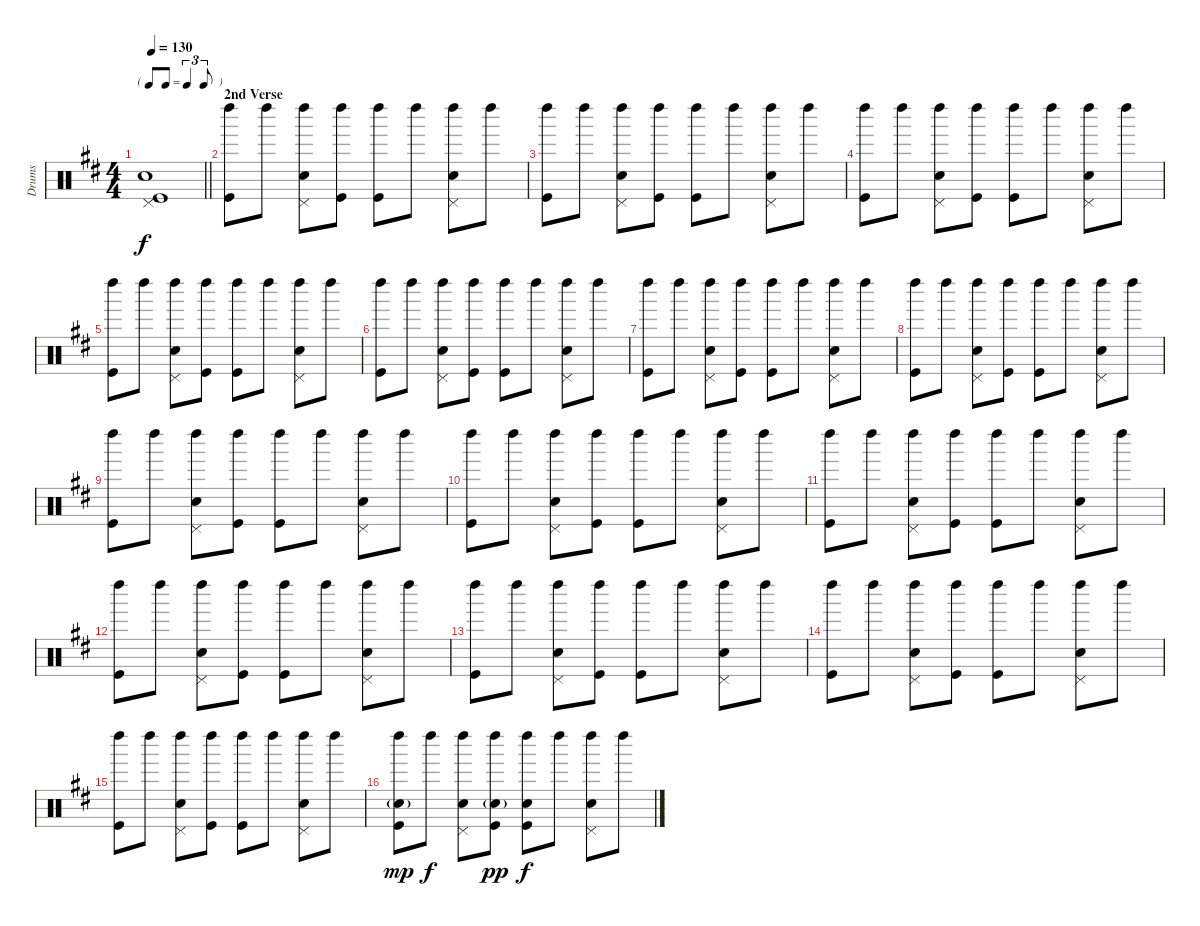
\track ("Drums" "Drums") {instrument percussion}
\staff {score}
\articulation defaults
\ts (4 4)
\tf triplet8th
\tempo 130
\clef neutral
\barLineRight lightlight
\ks d
("Pedal Hi-Hat (hit)" "Snare (hit) 2" "Kick (hit)").1{dy f} |
\section ("" "2nd Verse")
("Left Maraca (hit)" "Kick (hit)").8 "Left Maraca (hit)".8 ("Left Maraca (hit)" "Pedal Hi-Hat (hit)" "Snare (hit) 2").8 ("Left Maraca (hit)" "Kick (hit)").8 ("Left Maraca (hit)" "Kick (hit)").8 "Left Maraca (hit)".8 ("Left Maraca (hit)" "Pedal Hi-Hat (hit)" "Snare (hit) 2").8 "Left Maraca (hit)".8 |
("Left Maraca (hit)" "Kick (hit)").8 "Left Maraca (hit)".8 ("Left Maraca (hit)" "Pedal Hi-Hat (hit)" "Snare (hit) 2").8 ("Left Maraca (hit)" "Kick (hit)").8 ("Left Maraca (hit)" "Kick (hit)").8 "Left Maraca (hit)".8 ("Left Maraca (hit)" "Pedal Hi-Hat (hit)" "Snare (hit) 2").8 "Left Maraca (hit)".8 |
("Left Maraca (hit)" "Kick (hit)").8 "Left Maraca (hit)".8 ("Left Maraca (hit)" "Pedal Hi-Hat (hit)" "Snare (hit) 2").8 ("Left Maraca (hit)" "Kick (hit)").8 ("Left Maraca (hit)" "Kick (hit)").8 "Left Maraca (hit)".8 ("Left Maraca (hit)" "Pedal Hi-Hat (hit)" "Snare (hit) 2").8 "Left Maraca (hit)".8 |
("Left Maraca (hit)" "Kick (hit)").8 "Left Maraca (hit)".8 ("Left Maraca (hit)" "Pedal Hi-Hat (hit)" "Snare (hit) 2").8 ("Left Maraca (hit)" "Kick (hit)").8 ("Left Maraca (hit)" "Kick (hit)").8 "Left Maraca (hit)".8 ("Left Maraca (hit)" "Pedal Hi-Hat (hit)" "Snare (hit) 2").8 "Left Maraca (hit)".8 |
("Left Maraca (hit)" "Kick (hit)").8 "Left Maraca (hit)".8 ("Left Maraca (hit)" "Pedal Hi-Hat (hit)" "Snare (hit) 2").8 ("Left Maraca (hit)" "Kick (hit)").8 ("Left Maraca (hit)" "Kick (hit)").8 "Left Maraca (hit)".8 ("Left Maraca (hit)" "Pedal Hi-Hat (hit)" "Snare (hit) 2").8 "Left Maraca (hit)".8 |
("Left Maraca (hit)" "Kick (hit)").8 "Left Maraca (hit)".8 ("Left Maraca (hit)" "Pedal Hi-Hat (hit)" "Snare (hit) 2").8 ("Left Maraca (hit)" "Kick (hit)").8 ("Left Maraca (hit)" "Kick (hit)").8 "Left Maraca (hit)".8 ("Left Maraca (hit)" "Pedal Hi-Hat (hit)" "Snare (hit) 2").8 "Left Maraca (hit)".8 |
("Left Maraca (hit)" "Kick (hit)").8 "Left Maraca (hit)".8 ("Left Maraca (hit)" "Pedal Hi-Hat (hit)" "Snare (hit) 2").8 ("Left Maraca (hit)" "Kick (hit)").8 ("Left Maraca (hit)" "Kick (hit)").8 "Left Maraca (hit)".8 ("Left Maraca (hit)" "Pedal Hi-Hat (hit)" "Snare (hit) 2").8 "Left Maraca (hit)".8 |
("Left Maraca (hit)" "Kick (hit)").8 "Left Maraca (hit)".8 ("Left Maraca (hit)" "Pedal Hi-Hat (hit)" "Snare (hit) 2").8 ("Left Maraca (hit)" "Kick (hit)").8 ("Left Maraca (hit)" "Kick (hit)").8 "Left Maraca (hit)".8 ("Left Maraca (hit)" "Pedal Hi-Hat (hit)" "Snare (hit) 2").8 "Left Maraca (hit)".8 |
("Left Maraca (hit)" "Kick (hit)").8 "Left Maraca (hit)".8 ("Left Maraca (hit)" "Pedal Hi-Hat (hit)" "Snare (hit) 2").8 ("Left Maraca (hit)" "Kick (hit)").8 ("Left Maraca (hit)" "Kick (hit)").8 "Left Maraca (hit)".8 ("Left Maraca (hit)" "Pedal Hi-Hat (hit)" "Snare (hit) 2").8 "Left Maraca (hit)".8 |
("Left Maraca (hit)" "Kick (hit)").8 "Left Maraca (hit)".8 ("Left Maraca (hit)" "Pedal Hi-Hat (hit)" "Snare (hit) 2").8 ("Left Maraca (hit)" "Kick (hit)").8 ("Left Maraca (hit)" "Kick (hit)").8 "Left Maraca (hit)".8 ("Left Maraca (hit)" "Pedal Hi-Hat (hit)" "Snare (hit) 2").8 "Left Maraca (hit)".8 |
("Left Maraca (hit)" "Kick (hit)").8 "Left Maraca (hit)".8 ("Left Maraca (hit)" "Pedal Hi-Hat (hit)" "Snare (hit) 2").8 ("Left Maraca (hit)" "Kick (hit)").8 ("Left Maraca (hit)" "Kick (hit)").8 "Left Maraca (hit)".8 ("Left Maraca (hit)" "Pedal Hi-Hat (hit)" "Snare (hit) 2").8 "Left Maraca (hit)".8 |
("Left Maraca (hit)" "Kick (hit)").8 "Left Maraca (hit)".8 ("Left Maraca (hit)" "Pedal Hi-Hat (hit)" "Snare (hit) 2").8 ("Left Maraca (hit)" "Kick (hit)").8 ("Left Maraca (hit)" "Kick (hit)").8 "Left Maraca (hit)".8 ("Left Maraca (hit)" "Pedal Hi-Hat (hit)" "Snare (hit) 2").8 "Left Maraca (hit)".8 |
("Left Maraca (hit)" "Kick (hit)").8 "Left Maraca (hit)".8 ("Left Maraca (hit)" "Pedal Hi-Hat (hit)" "Snare (hit) 2").8 ("Left Maraca (hit)" "Kick (hit)").8 ("Left Maraca (hit)" "Kick (hit)").8 "Left Maraca (hit)".8 ("Left Maraca (hit)" "Pedal Hi-Hat (hit)" "Snare (hit) 2").8 "Left Maraca (hit)".8 |
("Left Maraca (hit)" "Kick (hit)").8 "Left Maraca (hit)".8 ("Left Maraca (hit)" "Pedal Hi-Hat (hit)" "Snare (hit) 2").8 ("Left Maraca (hit)" "Kick (hit)").8 ("Left Maraca (hit)" "Kick (hit)").8 "Left Maraca (hit)".8 ("Left Maraca (hit)" "Pedal Hi-Hat (hit)" "Snare (hit) 2").8 "Left Maraca (hit)".8 |
("Left Maraca (hit)" "Snare (hit) 2"{g} "Kick (hit)").8{dy mp} "Left Maraca (hit)".8{dy f} ("Left Maraca (hit)" "Pedal Hi-Hat (hit)" "Snare (hit) 2").8 ("Left Maraca (hit)" "Snare (hit) 2"{g} "Kick (hit)").8{dy pp} ("Left Maraca (hit)" "Snare (hit) 2" "Kick (hit)").8{dy f} "Left Maraca (hit)".8 ("Left Maraca (hit)" "Pedal Hi-Hat (hit)" "Snare (hit) 2").8 "Left Maraca (hit)".8
